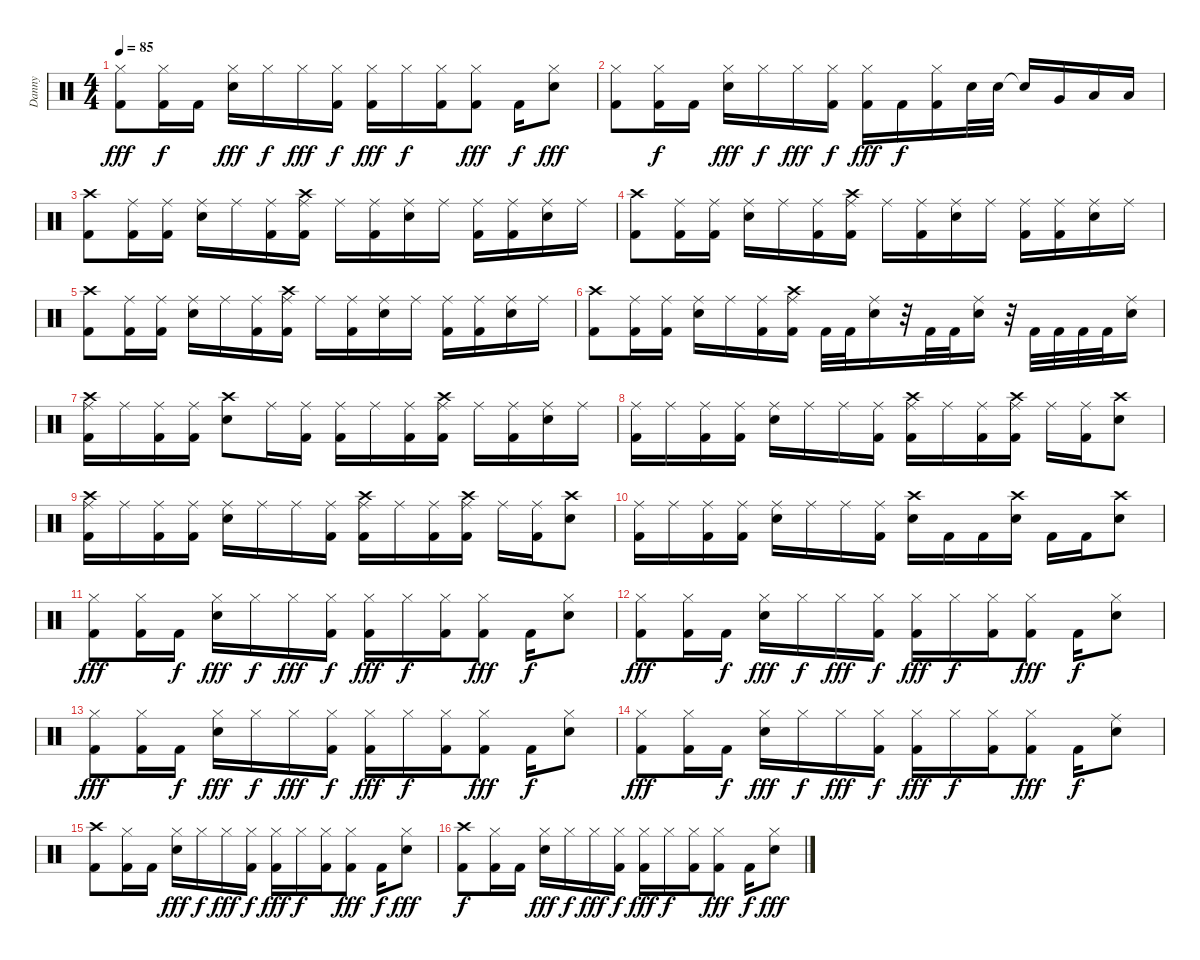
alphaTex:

\track ("Danny" "Danny") {instrument percussion}
\staff {score}
\articulation defaults
\ts (4 4)
\tempo 85
\clef neutral
\ks c
("Hi-Hat (closed)" "Kick (hit) 2").8{dy fff} ("Hi-Hat (closed)" "Kick (hit) 2").16{dy f} "Kick (hit) 2".16 ("Hi-Hat (closed)" "Snare (hit) 2").16{dy fff} "Hi-Hat (closed)".16{dy f} "Hi-Hat (closed)".16{dy fff} ("Hi-Hat (closed)" "Kick (hit) 2").16{dy f} ("Hi-Hat (closed)" "Kick (hit) 2").16{dy fff} "Hi-Hat (closed)".16{dy f} ("Hi-Hat (closed)" "Kick (hit) 2").16 ("Hi-Hat (closed)" "Kick (hit) 2").8{dy fff} "Kick (hit) 2".16{dy f} ("Hi-Hat (closed)" "Snare (hit) 2").8{dy fff} |
("Hi-Hat (closed)" "Kick (hit) 2").8 ("Hi-Hat (closed)" "Kick (hit) 2").16{dy f} "Kick (hit) 2".16 ("Hi-Hat (closed)" "Snare (hit) 2").16{dy fff} "Hi-Hat (closed)".16{dy f} "Hi-Hat (closed)".16{dy fff} ("Hi-Hat (closed)" "Kick (hit) 2").16{dy f} ("Hi-Hat (closed)" "Kick (hit) 2").16{dy fff} "Kick (hit) 2".16{dy f} ("Hi-Hat (closed)" "Kick (hit) 2").16 "Snare (hit) 2".32 "Snare (hit) 2".32 "Snare (hit)"{t}.16 "Very Low Tom (hit)".16 "Low Floor Tom (hit)".16 "Low Floor Tom (hit)".16 |
("Crash high (hit)" "Kick (hit) 2").8 ("Ride (middle)" "Kick (hit) 2").16 ("Ride (middle)" "Kick (hit) 2").16 ("Ride (middle)" "Snare (hit) 2").16 "Ride (middle)".16 ("Ride (middle)" "Kick (hit) 2").16 ("Crash high (hit)" "Ride (middle)" "Kick (hit) 2").16 "Ride (middle)".16 ("Ride (middle)" "Kick (hit) 2").16 ("Ride (middle)" "Snare (hit) 2").16 "Ride (middle)".16 ("Ride (middle)" "Kick (hit) 2").16 ("Ride (middle)" "Kick (hit) 2").16 ("Ride (middle)" "Snare (hit) 2").16 "Ride (middle)".16 |
("Crash high (hit)" "Kick (hit) 2").8 ("Ride (middle)" "Kick (hit) 2").16 ("Ride (middle)" "Kick (hit) 2").16 ("Ride (middle)" "Snare (hit) 2").16 "Ride (middle)".16 ("Ride (middle)" "Kick (hit) 2").16 ("Crash high (hit)" "Ride (middle)" "Kick (hit) 2").16 "Ride (middle)".16 ("Ride (middle)" "Kick (hit) 2").16 ("Ride (middle)" "Snare (hit) 2").16 "Ride (middle)".16 ("Ride (middle)" "Kick (hit) 2").16 ("Ride (middle)" "Kick (hit) 2").16 ("Ride (middle)" "Snare (hit) 2").16 "Ride (middle)".16 |
("Crash high (hit)" "Kick (hit) 2").8 ("Ride (middle)" "Kick (hit) 2").16 ("Ride (middle)" "Kick (hit) 2").16 ("Ride (middle)" "Snare (hit) 2").16 "Ride (middle)".16 ("Ride (middle)" "Kick (hit) 2").16 ("Crash high (hit)" "Ride (middle)" "Kick (hit) 2").16 "Ride (middle)".16 ("Ride (middle)" "Kick (hit) 2").16 ("Ride (middle)" "Snare (hit) 2").16 "Ride (middle)".16 ("Ride (middle)" "Kick (hit) 2").16 ("Ride (middle)" "Kick (hit) 2").16 ("Ride (middle)" "Snare (hit) 2").16 "Ride (middle)".16 |
("Crash high (hit)" "Kick (hit) 2").8 ("Ride (middle)" "Kick (hit) 2").16 ("Ride (middle)" "Kick (hit) 2").16 ("Ride (middle)" "Snare (hit) 2").16 "Ride (middle)".16 ("Ride (middle)" "Kick (hit) 2").16 ("Crash high (hit)" "Ride (middle)" "Kick (hit) 2").16 "Kick (hit) 2".32 "Kick (hit) 2".32 ("Ride (middle)" "Snare (hit) 2").16 r.32 "Kick (hit) 2".32 "Kick (hit) 2".32 ("Ride (middle)" "Snare (hit) 2").16 r.32 "Kick (hit) 2".32 "Kick (hit) 2".32 "Kick (hit) 2".32 "Kick (hit) 2".32 ("Ride (middle)" "Snare (hit) 2").16 |
("Crash high (hit)" "Ride (middle)" "Kick (hit) 2").16 "Ride (middle)".16 ("Ride (middle)" "Kick (hit) 2").16 ("Ride (middle)" "Kick (hit) 2").16 ("Crash high (hit)" "Snare (hit) 2").8 "Ride (middle)".16 ("Ride (middle)" "Kick (hit) 2").16 ("Ride (middle)" "Kick (hit) 2").16 "Ride (middle)".16 ("Ride (middle)" "Kick (hit) 2").16 ("Crash high (hit)" "Ride (middle)" "Kick (hit) 2").16 "Ride (middle)".16 ("Ride (middle)" "Kick (hit) 2").16 ("Ride (middle)" "Snare (hit) 2").16 "Ride (middle)".16 |
("Ride (middle)" "Kick (hit) 2").16 "Ride (middle)".16 ("Ride (middle)" "Kick (hit) 2").16 ("Ride (middle)" "Kick (hit) 2").16 ("Ride (middle)" "Snare (hit) 2").16 "Ride (middle)".16 "Ride (middle)".16 ("Ride (middle)" "Kick (hit) 2").16 ("Crash high (hit)" "Ride (middle)" "Kick (hit) 2").16 "Ride (middle)".16 ("Ride (middle)" "Kick (hit) 2").16 ("Crash high (hit)" "Ride (middle)" "Kick (hit) 2").16 "Ride (middle)".16 ("Ride (middle)" "Kick (hit) 2").16 ("Crash high (hit)" "Snare (hit) 2").8 |
("Crash high (hit)" "Ride (middle)" "Kick (hit) 2").16 "Ride (middle)".16 ("Ride (middle)" "Kick (hit) 2").16 ("Ride (middle)" "Kick (hit) 2").16 ("Ride (middle)" "Snare (hit) 2").16 "Ride (middle)".16 "Ride (middle)".16 ("Ride (middle)" "Kick (hit) 2").16 ("Crash high (hit)" "Ride (middle)" "Kick (hit) 2").16 "Ride (middle)".16 ("Ride (middle)" "Kick (hit) 2").16 ("Crash high (hit)" "Ride (middle)" "Kick (hit) 2").16 "Ride (middle)".16 ("Ride (middle)" "Kick (hit) 2").16 ("Crash high (hit)" "Snare (hit) 2").8 |
("Ride (middle)" "Kick (hit) 2").16 "Ride (middle)".16 ("Ride (middle)" "Kick (hit) 2").16 ("Ride (middle)" "Kick (hit) 2").16 ("Ride (middle)" "Snare (hit) 2").16 "Ride (middle)".16 "Ride (middle)".16 ("Ride (middle)" "Kick (hit) 2").16 ("Crash high (hit)" "Snare (hit) 2").16 "Kick (hit) 2".16 "Kick (hit) 2".16 ("Crash high (hit)" "Snare (hit) 2").16 "Kick (hit) 2".16 "Kick (hit) 2".16 ("Crash high (hit)" "Snare (hit) 2").8 |
("Hi-Hat (closed)" "Kick (hit) 2").8{dy fff} ("Hi-Hat (closed)" "Kick (hit) 2").16 "Kick (hit) 2".16{dy f} ("Hi-Hat (closed)" "Snare (hit) 2").16{dy fff} "Hi-Hat (closed)".16{dy f} "Hi-Hat (closed)".16{dy fff} ("Hi-Hat (closed)" "Kick (hit) 2").16{dy f} ("Hi-Hat (closed)" "Kick (hit) 2").16{dy fff} "Hi-Hat (closed)".16{dy f} ("Hi-Hat (closed)" "Kick (hit) 2").16 ("Hi-Hat (closed)" "Kick (hit) 2").8{dy fff} "Kick (hit) 2".16{dy f} ("Hi-Hat (closed)" "Snare (hit) 2").8 |
("Hi-Hat (closed)" "Kick (hit) 2").8{dy fff} ("Hi-Hat (closed)" "Kick (hit) 2").16 "Kick (hit) 2".16{dy f} ("Hi-Hat (closed)" "Snare (hit) 2").16{dy fff} "Hi-Hat (closed)".16{dy f} "Hi-Hat (closed)".16{dy fff} ("Hi-Hat (closed)" "Kick (hit) 2").16{dy f} ("Hi-Hat (closed)" "Kick (hit) 2").16{dy fff} "Hi-Hat (closed)".16{dy f} ("Hi-Hat (closed)" "Kick (hit) 2").16 ("Hi-Hat (closed)" "Kick (hit) 2").8{dy fff} "Kick (hit) 2".16{dy f} ("Hi-Hat (closed)" "Snare (hit) 2").8 |
("Hi-Hat (closed)" "Kick (hit) 2").8{dy fff} ("Hi-Hat (closed)" "Kick (hit) 2").16 "Kick (hit) 2".16{dy f} ("Hi-Hat (closed)" "Snare (hit) 2").16{dy fff} "Hi-Hat (closed)".16{dy f} "Hi-Hat (closed)".16{dy fff} ("Hi-Hat (closed)" "Kick (hit) 2").16{dy f} ("Hi-Hat (closed)" "Kick (hit) 2").16{dy fff} "Hi-Hat (closed)".16{dy f} ("Hi-Hat (closed)" "Kick (hit) 2").16 ("Hi-Hat (closed)" "Kick (hit) 2").8{dy fff} "Kick (hit) 2".16{dy f} ("Hi-Hat (closed)" "Snare (hit) 2").8 |
("Hi-Hat (closed)" "Kick (hit) 2").8{dy fff} ("Hi-Hat (closed)" "Kick (hit) 2").16 "Kick (hit) 2".16{dy f} ("Hi-Hat (closed)" "Snare (hit) 2").16{dy fff} "Hi-Hat (closed)".16{dy f} "Hi-Hat (closed)".16{dy fff} ("Hi-Hat (closed)" "Kick (hit) 2").16{dy f} ("Hi-Hat (closed)" "Kick (hit) 2").16{dy fff} "Hi-Hat (closed)".16{dy f} ("Hi-Hat (closed)" "Kick (hit) 2").16 ("Hi-Hat (closed)" "Kick (hit) 2").8{dy fff} "Kick (hit) 2".16{dy f} ("Ride (middle)" "Snare (hit) 2").8 |
("Crash high (hit)" "Kick (hit) 2").8 ("Hi-Hat (closed)" "Kick (hit) 2").16 "Kick (hit) 2".16 ("Hi-Hat (closed)" "Snare (hit) 2").16{dy fff} "Hi-Hat (closed)".16{dy f} "Hi-Hat (closed)".16{dy fff} ("Hi-Hat (closed)" "Kick (hit) 2").16{dy f} ("Hi-Hat (closed)" "Kick (hit) 2").16{dy fff} "Hi-Hat (closed)".16{dy f} ("Hi-Hat (closed)" "Kick (hit) 2").16 ("Hi-Hat (closed)" "Kick (hit) 2").8{dy fff} "Kick (hit) 2".16{dy f} ("Hi-Hat (closed)" "Snare (hit) 2").8{dy fff} |
("Crash high (hit)" "Kick (hit) 2").8{dy f} ("Hi-Hat (closed)" "Kick (hit) 2").16 "Kick (hit) 2".16 ("Hi-Hat (closed)" "Snare (hit) 2").16{dy fff} "Hi-Hat (closed)".16{dy f} "Hi-Hat (closed)".16{dy fff} ("Hi-Hat (closed)" "Kick (hit) 2").16{dy f} ("Hi-Hat (closed)" "Kick (hit) 2").16{dy fff} "Hi-Hat (closed)".16{dy f} ("Hi-Hat (closed)" "Kick (hit) 2").16 ("Hi-Hat (closed)" "Kick (hit) 2").8{dy fff} "Kick (hit) 2".16{dy f} ("Hi-Hat (closed)" "Snare (hit) 2").8{dy fff}
